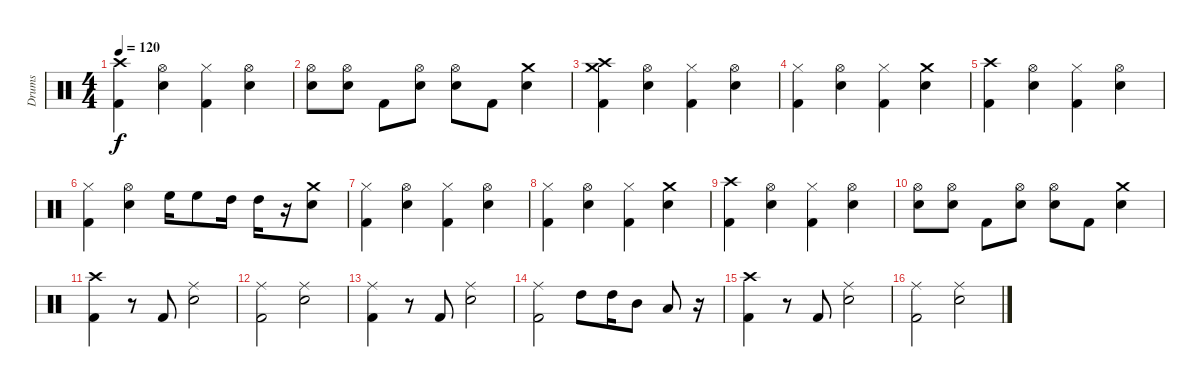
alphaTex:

\track ("Drums" "Drums") {instrument percussion}
\staff {score}
\articulation defaults
\ts (4 4)
\tempo 120
\clef neutral
\ks c
("Kick (hit) 2" "Crash high (hit)").4{dy f} ("Electric Snare (hit)" "Hi-Hat (open)").4 ("Kick (hit) 2" "Hi-Hat (closed)").4 ("Electric Snare (hit)" "Hi-Hat (open)").4 |
("Electric Snare (hit)" "Hi-Hat (open)").8 ("Electric Snare (hit)" "Hi-Hat (open)").8 "Kick (hit) 2".8 ("Electric Snare (hit)" "Hi-Hat (open)").8 ("Electric Snare (hit)" "Hi-Hat (open)").8 "Kick (hit) 2".8 ("Electric Snare (hit)" "Crash medium (hit)").4 |
("Kick (hit) 2" "Crash medium (hit)" "Crash high (hit)").4 ("Electric Snare (hit)" "Hi-Hat (open)").4 ("Kick (hit) 2" "Hi-Hat (closed)").4 ("Electric Snare (hit)" "Hi-Hat (open)").4 |
("Kick (hit) 2" "Hi-Hat (closed)").4 ("Electric Snare (hit)" "Hi-Hat (open)").4 ("Kick (hit) 2" "Hi-Hat (closed)").4 ("Electric Snare (hit)" "Crash medium (hit)").4 |
("Kick (hit) 2" "Crash high (hit)").4 ("Electric Snare (hit)" "Hi-Hat (open)").4 ("Kick (hit) 2" "Hi-Hat (closed)").4 ("Electric Snare (hit)" "Hi-Hat (open)").4 |
("Kick (hit) 2" "Hi-Hat (closed)").4 ("Electric Snare (hit)" "Hi-Hat (open)").4 "High Floor Tom (hit)".16 "High Floor Tom (hit)".8 "High Tom (hit)".16 "High Tom (hit)".16 r.16 ("Electric Snare (hit)" "Crash medium (hit)").8 |
("Kick (hit) 2" "Hi-Hat (closed)").4 ("Electric Snare (hit)" "Hi-Hat (open)").4 ("Kick (hit) 2" "Hi-Hat (closed)").4 ("Electric Snare (hit)" "Hi-Hat (open)").4 |
("Kick (hit) 2" "Hi-Hat (closed)").4 ("Electric Snare (hit)" "Hi-Hat (open)").4 ("Kick (hit) 2" "Hi-Hat (closed)").4 ("Electric Snare (hit)" "Crash medium (hit)").4 |
("Kick (hit) 2" "Crash high (hit)").4 ("Electric Snare (hit)" "Hi-Hat (open)").4 ("Kick (hit) 2" "Hi-Hat (closed)").4 ("Electric Snare (hit)" "Hi-Hat (open)").4 |
("Electric Snare (hit)" "Hi-Hat (open)").8 ("Electric Snare (hit)" "Hi-Hat (open)").8 "Kick (hit) 2".8 ("Electric Snare (hit)" "Hi-Hat (open)").8 ("Electric Snare (hit)" "Hi-Hat (open)").8 "Kick (hit) 2".8 ("Electric Snare (hit)" "Crash medium (hit)").4 |
("Kick (hit) 2" "Crash high (hit)").4 r.8 "Kick (hit) 2".8 ("Electric Snare (hit)" "Ride (middle)").2 |
("Kick (hit) 2" "Ride (middle)").2 ("Electric Snare (hit)" "Ride (middle)").2 |
("Kick (hit) 2" "Ride (middle)").4 r.8 "Kick (hit) 2".8 ("Electric Snare (hit)" "Ride (middle)").2 |
("Kick (hit) 2" "Ride (middle)").2 "High Tom (hit)".8 "High Tom (hit)".16 "Mid Tom (hit)".8 "Low Tom (hit)".8 r.16 |
("Kick (hit) 2" "Crash high (hit)").4 r.8 "Kick (hit) 2".8 ("Electric Snare (hit)" "Ride (middle)").2 |
("Kick (hit) 2" "Ride (middle)").2 ("Electric Snare (hit)" "Ride (middle)").2
